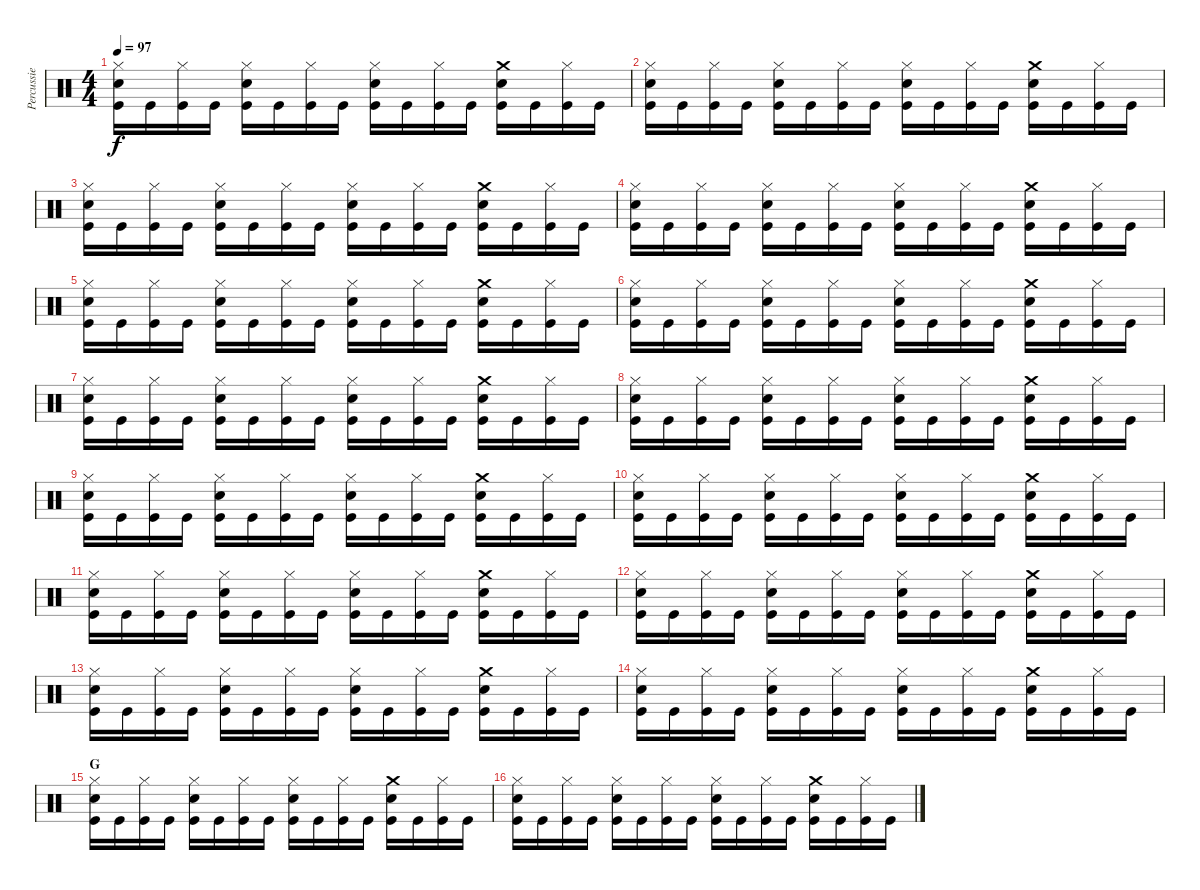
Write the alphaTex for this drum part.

\track ("Percussie" "Percussie") {instrument percussion}
\staff {score}
\articulation defaults
\ts (4 4)
\tempo 97
\clef neutral
\ks c
("Hi-Hat (closed)" "Electric Snare (hit)" "Kick (hit)").16{dy f} "Kick (hit)".16 ("Hi-Hat (closed)" "Kick (hit)").16 "Kick (hit)".16 ("Hi-Hat (closed)" "Electric Snare (hit)" "Kick (hit)").16 "Kick (hit)".16 ("Hi-Hat (closed)" "Kick (hit)").16 "Kick (hit)".16 ("Hi-Hat (closed)" "Electric Snare (hit)" "Kick (hit)").16 "Kick (hit)".16 ("Hi-Hat (closed)" "Kick (hit)").16 "Kick (hit)".16 ("Crash medium (hit)" "Electric Snare (hit)" "Kick (hit)").16 "Kick (hit)".16 ("Hi-Hat (closed)" "Kick (hit)").16 "Kick (hit)".16 |
("Hi-Hat (closed)" "Electric Snare (hit)" "Kick (hit)").16 "Kick (hit)".16 ("Hi-Hat (closed)" "Kick (hit)").16 "Kick (hit)".16 ("Hi-Hat (closed)" "Electric Snare (hit)" "Kick (hit)").16 "Kick (hit)".16 ("Hi-Hat (closed)" "Kick (hit)").16 "Kick (hit)".16 ("Hi-Hat (closed)" "Electric Snare (hit)" "Kick (hit)").16 "Kick (hit)".16 ("Hi-Hat (closed)" "Kick (hit)").16 "Kick (hit)".16 ("Crash medium (hit)" "Electric Snare (hit)" "Kick (hit)").16 "Kick (hit)".16 ("Hi-Hat (closed)" "Kick (hit)").16 "Kick (hit)".16 |
("Hi-Hat (closed)" "Electric Snare (hit)" "Kick (hit)").16 "Kick (hit)".16 ("Hi-Hat (closed)" "Kick (hit)").16 "Kick (hit)".16 ("Hi-Hat (closed)" "Electric Snare (hit)" "Kick (hit)").16 "Kick (hit)".16 ("Hi-Hat (closed)" "Kick (hit)").16 "Kick (hit)".16 ("Hi-Hat (closed)" "Electric Snare (hit)" "Kick (hit)").16 "Kick (hit)".16 ("Hi-Hat (closed)" "Kick (hit)").16 "Kick (hit)".16 ("Crash medium (hit)" "Electric Snare (hit)" "Kick (hit)").16 "Kick (hit)".16 ("Hi-Hat (closed)" "Kick (hit)").16 "Kick (hit)".16 |
("Hi-Hat (closed)" "Electric Snare (hit)" "Kick (hit)").16 "Kick (hit)".16 ("Hi-Hat (closed)" "Kick (hit)").16 "Kick (hit)".16 ("Hi-Hat (closed)" "Electric Snare (hit)" "Kick (hit)").16 "Kick (hit)".16 ("Hi-Hat (closed)" "Kick (hit)").16 "Kick (hit)".16 ("Hi-Hat (closed)" "Electric Snare (hit)" "Kick (hit)").16 "Kick (hit)".16 ("Hi-Hat (closed)" "Kick (hit)").16 "Kick (hit)".16 ("Crash medium (hit)" "Electric Snare (hit)" "Kick (hit)").16 "Kick (hit)".16 ("Hi-Hat (closed)" "Kick (hit)").16 "Kick (hit)".16 |
("Hi-Hat (closed)" "Electric Snare (hit)" "Kick (hit)").16 "Kick (hit)".16 ("Hi-Hat (closed)" "Kick (hit)").16 "Kick (hit)".16 ("Hi-Hat (closed)" "Electric Snare (hit)" "Kick (hit)").16 "Kick (hit)".16 ("Hi-Hat (closed)" "Kick (hit)").16 "Kick (hit)".16 ("Hi-Hat (closed)" "Electric Snare (hit)" "Kick (hit)").16 "Kick (hit)".16 ("Hi-Hat (closed)" "Kick (hit)").16 "Kick (hit)".16 ("Crash medium (hit)" "Electric Snare (hit)" "Kick (hit)").16 "Kick (hit)".16 ("Hi-Hat (closed)" "Kick (hit)").16 "Kick (hit)".16 |
("Hi-Hat (closed)" "Electric Snare (hit)" "Kick (hit)").16 "Kick (hit)".16 ("Hi-Hat (closed)" "Kick (hit)").16 "Kick (hit)".16 ("Hi-Hat (closed)" "Electric Snare (hit)" "Kick (hit)").16 "Kick (hit)".16 ("Hi-Hat (closed)" "Kick (hit)").16 "Kick (hit)".16 ("Hi-Hat (closed)" "Electric Snare (hit)" "Kick (hit)").16 "Kick (hit)".16 ("Hi-Hat (closed)" "Kick (hit)").16 "Kick (hit)".16 ("Crash medium (hit)" "Electric Snare (hit)" "Kick (hit)").16 "Kick (hit)".16 ("Hi-Hat (closed)" "Kick (hit)").16 "Kick (hit)".16 |
("Hi-Hat (closed)" "Electric Snare (hit)" "Kick (hit)").16 "Kick (hit)".16 ("Hi-Hat (closed)" "Kick (hit)").16 "Kick (hit)".16 ("Hi-Hat (closed)" "Electric Snare (hit)" "Kick (hit)").16 "Kick (hit)".16 ("Hi-Hat (closed)" "Kick (hit)").16 "Kick (hit)".16 ("Hi-Hat (closed)" "Electric Snare (hit)" "Kick (hit)").16 "Kick (hit)".16 ("Hi-Hat (closed)" "Kick (hit)").16 "Kick (hit)".16 ("Crash medium (hit)" "Electric Snare (hit)" "Kick (hit)").16 "Kick (hit)".16 ("Hi-Hat (closed)" "Kick (hit)").16 "Kick (hit)".16 |
("Hi-Hat (closed)" "Electric Snare (hit)" "Kick (hit)").16 "Kick (hit)".16 ("Hi-Hat (closed)" "Kick (hit)").16 "Kick (hit)".16 ("Hi-Hat (closed)" "Electric Snare (hit)" "Kick (hit)").16 "Kick (hit)".16 ("Hi-Hat (closed)" "Kick (hit)").16 "Kick (hit)".16 ("Hi-Hat (closed)" "Electric Snare (hit)" "Kick (hit)").16 "Kick (hit)".16 ("Hi-Hat (closed)" "Kick (hit)").16 "Kick (hit)".16 ("Crash medium (hit)" "Electric Snare (hit)" "Kick (hit)").16 "Kick (hit)".16 ("Hi-Hat (closed)" "Kick (hit)").16 "Kick (hit)".16 |
("Hi-Hat (closed)" "Electric Snare (hit)" "Kick (hit)").16 "Kick (hit)".16 ("Hi-Hat (closed)" "Kick (hit)").16 "Kick (hit)".16 ("Hi-Hat (closed)" "Electric Snare (hit)" "Kick (hit)").16 "Kick (hit)".16 ("Hi-Hat (closed)" "Kick (hit)").16 "Kick (hit)".16 ("Hi-Hat (closed)" "Electric Snare (hit)" "Kick (hit)").16 "Kick (hit)".16 ("Hi-Hat (closed)" "Kick (hit)").16 "Kick (hit)".16 ("Crash medium (hit)" "Electric Snare (hit)" "Kick (hit)").16 "Kick (hit)".16 ("Hi-Hat (closed)" "Kick (hit)").16 "Kick (hit)".16 |
("Hi-Hat (closed)" "Electric Snare (hit)" "Kick (hit)").16 "Kick (hit)".16 ("Hi-Hat (closed)" "Kick (hit)").16 "Kick (hit)".16 ("Hi-Hat (closed)" "Electric Snare (hit)" "Kick (hit)").16 "Kick (hit)".16 ("Hi-Hat (closed)" "Kick (hit)").16 "Kick (hit)".16 ("Hi-Hat (closed)" "Electric Snare (hit)" "Kick (hit)").16 "Kick (hit)".16 ("Hi-Hat (closed)" "Kick (hit)").16 "Kick (hit)".16 ("Crash medium (hit)" "Electric Snare (hit)" "Kick (hit)").16 "Kick (hit)".16 ("Hi-Hat (closed)" "Kick (hit)").16 "Kick (hit)".16 |
("Hi-Hat (closed)" "Electric Snare (hit)" "Kick (hit)").16 "Kick (hit)".16 ("Hi-Hat (closed)" "Kick (hit)").16 "Kick (hit)".16 ("Hi-Hat (closed)" "Electric Snare (hit)" "Kick (hit)").16 "Kick (hit)".16 ("Hi-Hat (closed)" "Kick (hit)").16 "Kick (hit)".16 ("Hi-Hat (closed)" "Electric Snare (hit)" "Kick (hit)").16 "Kick (hit)".16 ("Hi-Hat (closed)" "Kick (hit)").16 "Kick (hit)".16 ("Crash medium (hit)" "Electric Snare (hit)" "Kick (hit)").16 "Kick (hit)".16 ("Hi-Hat (closed)" "Kick (hit)").16 "Kick (hit)".16 |
("Hi-Hat (closed)" "Electric Snare (hit)" "Kick (hit)").16 "Kick (hit)".16 ("Hi-Hat (closed)" "Kick (hit)").16 "Kick (hit)".16 ("Hi-Hat (closed)" "Electric Snare (hit)" "Kick (hit)").16 "Kick (hit)".16 ("Hi-Hat (closed)" "Kick (hit)").16 "Kick (hit)".16 ("Hi-Hat (closed)" "Electric Snare (hit)" "Kick (hit)").16 "Kick (hit)".16 ("Hi-Hat (closed)" "Kick (hit)").16 "Kick (hit)".16 ("Crash medium (hit)" "Electric Snare (hit)" "Kick (hit)").16 "Kick (hit)".16 ("Hi-Hat (closed)" "Kick (hit)").16 "Kick (hit)".16 |
("Hi-Hat (closed)" "Electric Snare (hit)" "Kick (hit)").16 "Kick (hit)".16 ("Hi-Hat (closed)" "Kick (hit)").16 "Kick (hit)".16 ("Hi-Hat (closed)" "Electric Snare (hit)" "Kick (hit)").16 "Kick (hit)".16 ("Hi-Hat (closed)" "Kick (hit)").16 "Kick (hit)".16 ("Hi-Hat (closed)" "Electric Snare (hit)" "Kick (hit)").16 "Kick (hit)".16 ("Hi-Hat (closed)" "Kick (hit)").16 "Kick (hit)".16 ("Crash medium (hit)" "Electric Snare (hit)" "Kick (hit)").16 "Kick (hit)".16 ("Hi-Hat (closed)" "Kick (hit)").16 "Kick (hit)".16 |
("Hi-Hat (closed)" "Electric Snare (hit)" "Kick (hit)").16 "Kick (hit)".16 ("Hi-Hat (closed)" "Kick (hit)").16 "Kick (hit)".16 ("Hi-Hat (closed)" "Electric Snare (hit)" "Kick (hit)").16 "Kick (hit)".16 ("Hi-Hat (closed)" "Kick (hit)").16 "Kick (hit)".16 ("Hi-Hat (closed)" "Electric Snare (hit)" "Kick (hit)").16 "Kick (hit)".16 ("Hi-Hat (closed)" "Kick (hit)").16 "Kick (hit)".16 ("Crash medium (hit)" "Electric Snare (hit)" "Kick (hit)").16 "Kick (hit)".16 ("Hi-Hat (closed)" "Kick (hit)").16 "Kick (hit)".16 |
\section ("" "G")
("Hi-Hat (closed)" "Electric Snare (hit)" "Kick (hit)").16 "Kick (hit)".16 ("Hi-Hat (closed)" "Kick (hit)").16 "Kick (hit)".16 ("Hi-Hat (closed)" "Electric Snare (hit)" "Kick (hit)").16 "Kick (hit)".16 ("Hi-Hat (closed)" "Kick (hit)").16 "Kick (hit)".16 ("Hi-Hat (closed)" "Electric Snare (hit)" "Kick (hit)").16 "Kick (hit)".16 ("Hi-Hat (closed)" "Kick (hit)").16 "Kick (hit)".16 ("Crash medium (hit)" "Electric Snare (hit)" "Kick (hit)").16 "Kick (hit)".16 ("Hi-Hat (closed)" "Kick (hit)").16 "Kick (hit)".16 |
("Hi-Hat (closed)" "Electric Snare (hit)" "Kick (hit)").16 "Kick (hit)".16 ("Hi-Hat (closed)" "Kick (hit)").16 "Kick (hit)".16 ("Hi-Hat (closed)" "Electric Snare (hit)" "Kick (hit)").16 "Kick (hit)".16 ("Hi-Hat (closed)" "Kick (hit)").16 "Kick (hit)".16 ("Hi-Hat (closed)" "Electric Snare (hit)" "Kick (hit)").16 "Kick (hit)".16 ("Hi-Hat (closed)" "Kick (hit)").16 "Kick (hit)".16 ("Crash medium (hit)" "Electric Snare (hit)" "Kick (hit)").16 "Kick (hit)".16 ("Hi-Hat (closed)" "Kick (hit)").16 "Kick (hit)".16
